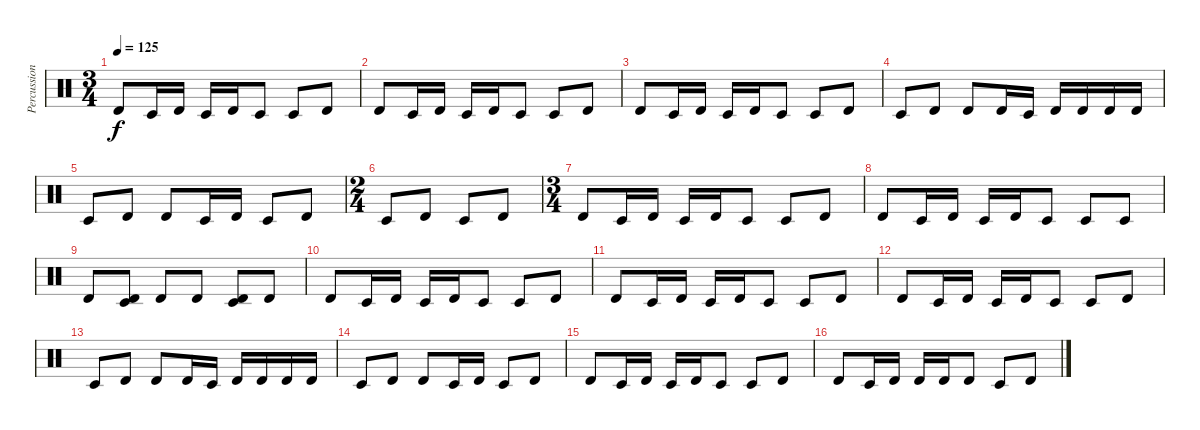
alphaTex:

\track ("Percussion" "Percussion") {instrument percussion}
\staff {score}
\articulation defaults
\ts (3 4)
\tempo 125
\clef neutral
\ks c "Timbale high (hit)"{nh}.8{dy f} "Timbale low (hit)"{nh}.16 "Timbale high (hit)"{nh}.16 "Timbale low (hit)"{nh}.16 "Timbale high (hit)"{nh}.16 "Timbale low (hit)"{nh}.8 "Timbale low (hit)"{nh}.8 "Timbale high (hit)"{nh}.8
|
"Timbale high (hit)"{nh}.8 "Timbale low (hit)"{nh}.16 "Timbale high (hit)"{nh}.16 "Timbale low (hit)"{nh}.16 "Timbale high (hit)"{nh}.16 "Timbale low (hit)"{nh}.8 "Timbale low (hit)"{nh}.8 "Timbale high (hit)"{nh}.8 |
"Timbale high (hit)"{nh}.8 "Timbale low (hit)"{nh}.16 "Timbale high (hit)"{nh}.16 "Timbale low (hit)"{nh}.16 "Timbale high (hit)"{nh}.16 "Timbale low (hit)"{nh}.8 "Timbale low (hit)"{nh}.8 "Timbale high (hit)"{nh}.8 |
"Timbale low (hit)".8 "Timbale high (hit)".8 "Timbale high (hit)".8 "Timbale high (hit)".16 "Timbale low (hit)".16 "Timbale high (hit)".16 "Timbale high (hit)".16 "Timbale high (hit)".16 "Timbale high (hit)".16 |
"Timbale low (hit)".8 "Timbale high (hit)".8 "Timbale high (hit)".8 "Timbale low (hit)".16 "Timbale high (hit)".16 "Timbale low (hit)".8 "Timbale high (hit)".8 |
\ts (2 4)
"Timbale low (hit)".8 "Timbale high (hit)".8 "Timbale low (hit)".8 "Timbale high (hit)".8 |
\ts (3 4)
"Timbale high (hit)"{nh}.8 "Timbale low (hit)"{nh}.16 "Timbale high (hit)"{nh}.16 "Timbale low (hit)"{nh}.16 "Timbale high (hit)"{nh}.16 "Timbale low (hit)"{nh}.8 "Timbale low (hit)"{nh}.8 "Timbale high (hit)"{nh}.8 |
"Timbale high (hit)"{nh}.8 "Timbale low (hit)"{nh}.16 "Timbale high (hit)"{nh}.16 "Timbale low (hit)"{nh}.16 "Timbale high (hit)"{nh}.16 "Timbale low (hit)"{nh}.8 "Timbale low (hit)"{nh}.8 "Timbale low (hit)"{nh}.8 |
"Timbale high (hit)".8 ("Timbale low (hit)" "Timbale high (hit)").8 "Timbale high (hit)".8 "Timbale high (hit)".8 ("Timbale low (hit)" "Timbale high (hit)").8 "Timbale high (hit)".8 |
"Timbale high (hit)"{nh}.8 "Timbale low (hit)"{nh}.16 "Timbale high (hit)"{nh}.16 "Timbale low (hit)"{nh}.16 "Timbale high (hit)"{nh}.16 "Timbale low (hit)"{nh}.8 "Timbale low (hit)"{nh}.8 "Timbale high (hit)"{nh}.8 |
"Timbale high (hit)"{nh}.8 "Timbale low (hit)"{nh}.16 "Timbale high (hit)"{nh}.16 "Timbale low (hit)"{nh}.16 "Timbale high (hit)"{nh}.16 "Timbale low (hit)"{nh}.8 "Timbale low (hit)"{nh}.8 "Timbale high (hit)"{nh}.8 |
"Timbale high (hit)"{nh}.8 "Timbale low (hit)"{nh}.16 "Timbale high (hit)"{nh}.16 "Timbale low (hit)"{nh}.16 "Timbale high (hit)"{nh}.16 "Timbale low (hit)"{nh}.8 "Timbale low (hit)"{nh}.8 "Timbale high (hit)"{nh}.8 |
"Timbale low (hit)".8 "Timbale high (hit)".8 "Timbale high (hit)".8 "Timbale high (hit)".16 "Timbale low (hit)".16 "Timbale high (hit)".16 "Timbale high (hit)".16 "Timbale high (hit)".16 "Timbale high (hit)".16 |
"Timbale low (hit)".8 "Timbale high (hit)".8 "Timbale high (hit)".8 "Timbale low (hit)".16 "Timbale high (hit)".16 "Timbale low (hit)".8 "Timbale high (hit)".8 |
"Timbale high (hit)"{nh}.8 "Timbale low (hit)"{nh}.16 "Timbale high (hit)"{nh}.16 "Timbale low (hit)"{nh}.16 "Timbale high (hit)"{nh}.16 "Timbale low (hit)"{nh}.8 "Timbale low (hit)"{nh}.8 "Timbale high (hit)"{nh}.8 |
"Timbale high (hit)"{nh}.8 "Timbale low (hit)"{nh}.16 "Timbale high (hit)"{nh}.16 "Timbale high (hit)"{nh}.16 "Timbale high (hit)"{nh}.16 "Timbale high (hit)"{nh}.8 "Timbale low (hit)"{nh}.8 "Timbale high (hit)"{nh}.8
